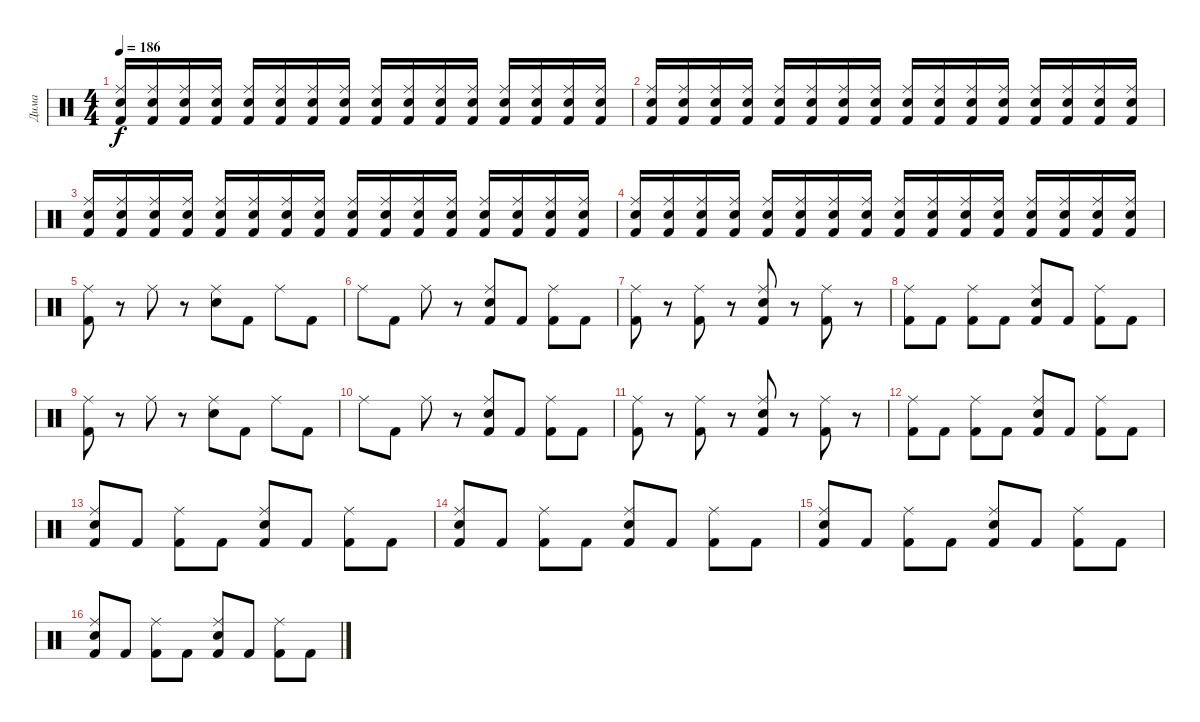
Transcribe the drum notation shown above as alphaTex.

\track ("Дима" "Дима") {instrument percussion}
\staff {score}
\articulation defaults
\ts (4 4)
\tempo 186
\clef neutral
\ks c
("Kick (hit) 2" "Ride (middle)" "Snare (hit) 2").16{dy f} ("Kick (hit) 2" "Ride (middle)" "Snare (hit) 2").16 ("Kick (hit) 2" "Ride (middle)" "Snare (hit) 2").16 ("Kick (hit) 2" "Ride (middle)" "Snare (hit) 2").16 ("Kick (hit) 2" "Ride (middle)" "Snare (hit) 2").16 ("Kick (hit) 2" "Ride (middle)" "Snare (hit) 2").16 ("Kick (hit) 2" "Ride (middle)" "Snare (hit) 2").16 ("Kick (hit) 2" "Ride (middle)" "Snare (hit) 2").16 ("Kick (hit) 2" "Ride (middle)" "Snare (hit) 2").16 ("Kick (hit) 2" "Ride (middle)" "Snare (hit) 2").16 ("Kick (hit) 2" "Ride (middle)" "Snare (hit) 2").16 ("Kick (hit) 2" "Ride (middle)" "Snare (hit) 2").16 ("Kick (hit) 2" "Ride (middle)" "Snare (hit) 2").16 ("Kick (hit) 2" "Ride (middle)" "Snare (hit) 2").16 ("Kick (hit) 2" "Ride (middle)" "Snare (hit) 2").16 ("Kick (hit) 2" "Ride (middle)" "Snare (hit) 2").16 |
("Kick (hit) 2" "Ride (middle)" "Snare (hit) 2").16 ("Kick (hit) 2" "Ride (middle)" "Snare (hit) 2").16 ("Kick (hit) 2" "Ride (middle)" "Snare (hit) 2").16 ("Kick (hit) 2" "Ride (middle)" "Snare (hit) 2").16 ("Kick (hit) 2" "Ride (middle)" "Snare (hit) 2").16 ("Kick (hit) 2" "Ride (middle)" "Snare (hit) 2").16 ("Kick (hit) 2" "Ride (middle)" "Snare (hit) 2").16 ("Kick (hit) 2" "Ride (middle)" "Snare (hit) 2").16 ("Kick (hit) 2" "Ride (middle)" "Snare (hit) 2").16 ("Kick (hit) 2" "Ride (middle)" "Snare (hit) 2").16 ("Kick (hit) 2" "Ride (middle)" "Snare (hit) 2").16 ("Kick (hit) 2" "Ride (middle)" "Snare (hit) 2").16 ("Kick (hit) 2" "Ride (middle)" "Snare (hit) 2").16 ("Kick (hit) 2" "Ride (middle)" "Snare (hit) 2").16 ("Kick (hit) 2" "Ride (middle)" "Snare (hit) 2").16 ("Kick (hit) 2" "Ride (middle)" "Snare (hit) 2").16 |
("Kick (hit) 2" "Ride (middle)" "Snare (hit) 2").16 ("Kick (hit) 2" "Ride (middle)" "Snare (hit) 2").16 ("Kick (hit) 2" "Ride (middle)" "Snare (hit) 2").16 ("Kick (hit) 2" "Ride (middle)" "Snare (hit) 2").16 ("Kick (hit) 2" "Ride (middle)" "Snare (hit) 2").16 ("Kick (hit) 2" "Ride (middle)" "Snare (hit) 2").16 ("Kick (hit) 2" "Ride (middle)" "Snare (hit) 2").16 ("Kick (hit) 2" "Ride (middle)" "Snare (hit) 2").16 ("Kick (hit) 2" "Ride (middle)" "Snare (hit) 2").16 ("Kick (hit) 2" "Ride (middle)" "Snare (hit) 2").16 ("Kick (hit) 2" "Ride (middle)" "Snare (hit) 2").16 ("Kick (hit) 2" "Ride (middle)" "Snare (hit) 2").16 ("Kick (hit) 2" "Ride (middle)" "Snare (hit) 2").16 ("Kick (hit) 2" "Ride (middle)" "Snare (hit) 2").16 ("Kick (hit) 2" "Ride (middle)" "Snare (hit) 2").16 ("Kick (hit) 2" "Ride (middle)" "Snare (hit) 2").16 |
("Kick (hit) 2" "Ride (middle)" "Snare (hit) 2").16 ("Kick (hit) 2" "Ride (middle)" "Snare (hit) 2").16 ("Kick (hit) 2" "Ride (middle)" "Snare (hit) 2").16 ("Kick (hit) 2" "Ride (middle)" "Snare (hit) 2").16 ("Kick (hit) 2" "Ride (middle)" "Snare (hit) 2").16 ("Kick (hit) 2" "Ride (middle)" "Snare (hit) 2").16 ("Kick (hit) 2" "Ride (middle)" "Snare (hit) 2").16 ("Kick (hit) 2" "Ride (middle)" "Snare (hit) 2").16 ("Kick (hit) 2" "Ride (middle)" "Snare (hit) 2").16 ("Kick (hit) 2" "Ride (middle)" "Snare (hit) 2").16 ("Kick (hit) 2" "Ride (middle)" "Snare (hit) 2").16 ("Kick (hit) 2" "Ride (middle)" "Snare (hit) 2").16 ("Kick (hit) 2" "Ride (middle)" "Snare (hit) 2").16 ("Kick (hit) 2" "Ride (middle)" "Snare (hit) 2").16 ("Kick (hit) 2" "Ride (middle)" "Snare (hit) 2").16 ("Kick (hit) 2" "Ride (middle)" "Snare (hit) 2").16 |
("Kick (hit) 2" "Ride (middle)").8 r.8 "Ride (middle)".8 r.8 ("Snare (hit) 2" "Ride (middle)").8 "Kick (hit) 2".8 "Ride (middle)".8 "Kick (hit) 2".8 |
"Ride (middle)".8 "Kick (hit) 2".8 "Ride (middle)".8 r.8 ("Kick (hit) 2" "Snare (hit) 2" "Ride (middle)").8 "Kick (hit) 2".8 ("Kick (hit) 2" "Ride (middle)").8 "Kick (hit) 2".8 |
("Kick (hit) 2" "Ride (middle)").8 r.8 ("Kick (hit) 2" "Ride (middle)").8 r.8 ("Kick (hit) 2" "Snare (hit) 2" "Ride (middle)").8 r.8 ("Kick (hit) 2" "Ride (middle)").8 r.8 |
("Kick (hit) 2" "Ride (middle)").8 "Kick (hit) 2".8 ("Kick (hit) 2" "Ride (middle)").8 "Kick (hit) 2".8 ("Kick (hit) 2" "Snare (hit) 2" "Ride (middle)").8 "Kick (hit) 2".8 ("Kick (hit) 2" "Ride (middle)").8 "Kick (hit) 2".8 |
("Kick (hit) 2" "Ride (middle)").8 r.8 "Ride (middle)".8 r.8 ("Snare (hit) 2" "Ride (middle)").8 "Kick (hit) 2".8 "Ride (middle)".8 "Kick (hit) 2".8 |
"Ride (middle)".8 "Kick (hit) 2".8 "Ride (middle)".8 r.8 ("Kick (hit) 2" "Snare (hit) 2" "Ride (middle)").8 "Kick (hit) 2".8 ("Kick (hit) 2" "Ride (middle)").8 "Kick (hit) 2".8 |
("Kick (hit) 2" "Ride (middle)").8 r.8 ("Kick (hit) 2" "Ride (middle)").8 r.8 ("Kick (hit) 2" "Snare (hit) 2" "Ride (middle)").8 r.8 ("Kick (hit) 2" "Ride (middle)").8 r.8 |
("Kick (hit) 2" "Ride (middle)").8 "Kick (hit) 2".8 ("Kick (hit) 2" "Ride (middle)").8 "Kick (hit) 2".8 ("Kick (hit) 2" "Snare (hit) 2" "Ride (middle)").8 "Kick (hit) 2".8 ("Kick (hit) 2" "Ride (middle)").8 "Kick (hit) 2".8 |
("Ride (middle)" "Snare (hit) 2" "Kick (hit) 2").8 "Kick (hit) 2".8 ("Ride (middle)" "Kick (hit) 2").8 "Kick (hit) 2".8 ("Ride (middle)" "Snare (hit) 2" "Kick (hit) 2").8 "Kick (hit) 2".8 ("Ride (middle)" "Kick (hit) 2").8 "Kick (hit) 2".8 |
("Ride (middle)" "Snare (hit) 2" "Kick (hit) 2").8 "Kick (hit) 2".8 ("Ride (middle)" "Kick (hit) 2").8 "Kick (hit) 2".8 ("Ride (middle)" "Snare (hit) 2" "Kick (hit) 2").8 "Kick (hit) 2".8 ("Ride (middle)" "Kick (hit) 2").8 "Kick (hit) 2".8 |
("Ride (middle)" "Snare (hit) 2" "Kick (hit) 2").8 "Kick (hit) 2".8 ("Ride (middle)" "Kick (hit) 2").8 "Kick (hit) 2".8 ("Ride (middle)" "Snare (hit) 2" "Kick (hit) 2").8 "Kick (hit) 2".8 ("Ride (middle)" "Kick (hit) 2").8 "Kick (hit) 2".8 |
("Ride (middle)" "Snare (hit) 2" "Kick (hit) 2").8 "Kick (hit) 2".8 ("Ride (middle)" "Kick (hit) 2").8 "Kick (hit) 2".8 ("Ride (middle)" "Snare (hit) 2" "Kick (hit) 2").8 "Kick (hit) 2".8 ("Ride (middle)" "Kick (hit) 2").8 "Kick (hit) 2".8
